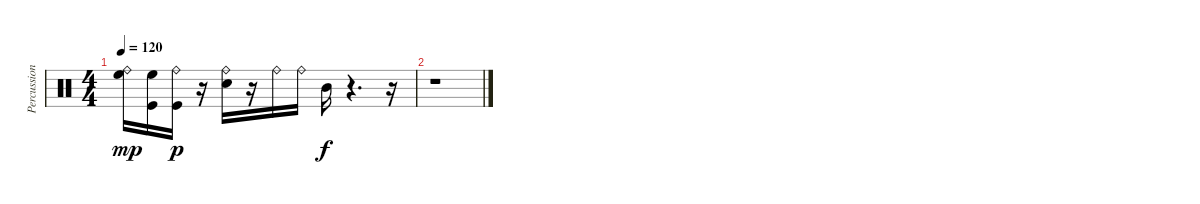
\track ("Percussions" "Percussion") {instrument percussion}
\staff {score}
\articulation defaults
\ts (4 4)
\tempo 120
\clef neutral
\ks c
("High Floor Tom (hit)" "Ride (bell)").16{dy mp} ("Kick (hit)" "High Floor Tom (hit)").16{volume 1} ("Kick (hit)" "Ride (bell)").16{dy p} r.16 ("Snare (hit) 2" "Ride (bell)").16{volume 1} r.16 "Ride (bell)".16{volume 1} "Ride (bell)".16{volume 0} "Mid Tom (hit)".16{dy f} r.4{d} r.16 |
r.1
